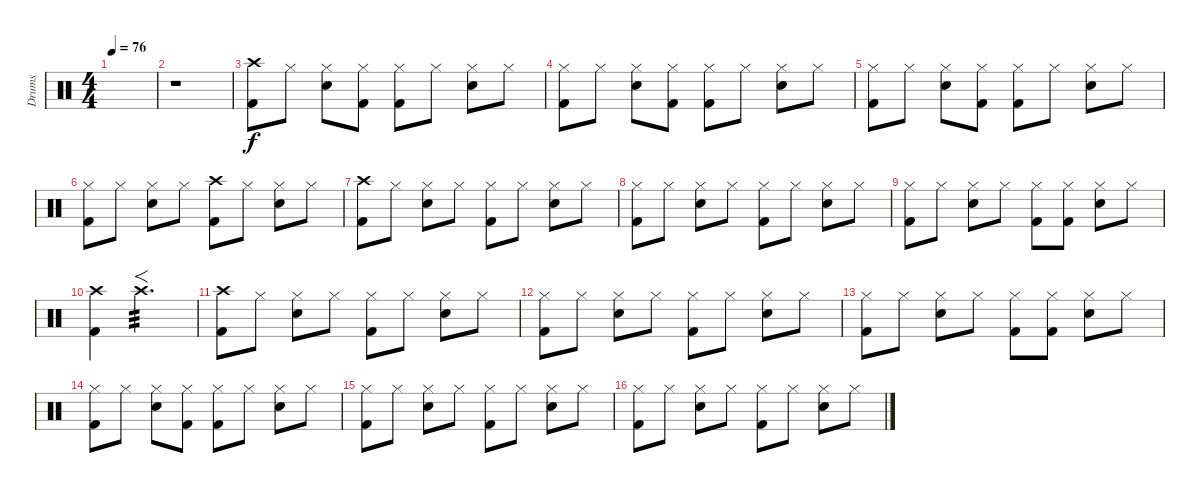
\track ("Drums" "Drums") {instrument percussion}
\staff {score}
\articulation defaults
\ts (4 4)
\tempo 76
\clef neutral
\ks c
|
r.1 |
("Crash high (hit)" "Kick (hit) 2").8 "Hi-Hat (closed)".8 ("Hi-Hat (closed)" "Snare (hit) 2").8 ("Hi-Hat (closed)" "Kick (hit) 2").8 ("Hi-Hat (closed)" "Kick (hit) 2").8 "Hi-Hat (closed)".8 ("Hi-Hat (closed)" "Snare (hit) 2").8 "Hi-Hat (closed)".8 |
("Hi-Hat (closed)" "Kick (hit) 2").8 "Hi-Hat (closed)".8 ("Hi-Hat (closed)" "Snare (hit) 2").8 ("Hi-Hat (closed)" "Kick (hit) 2").8 ("Hi-Hat (closed)" "Kick (hit) 2").8 "Hi-Hat (closed)".8 ("Hi-Hat (closed)" "Snare (hit) 2").8 "Hi-Hat (closed)".8 |
("Hi-Hat (closed)" "Kick (hit) 2").8 "Hi-Hat (closed)".8 ("Hi-Hat (closed)" "Snare (hit) 2").8 ("Hi-Hat (closed)" "Kick (hit) 2").8 ("Hi-Hat (closed)" "Kick (hit) 2").8 "Hi-Hat (closed)".8 ("Hi-Hat (closed)" "Snare (hit) 2").8 "Hi-Hat (closed)".8 |
("Hi-Hat (closed)" "Kick (hit) 2").8 "Hi-Hat (closed)".8 ("Hi-Hat (closed)" "Snare (hit) 2").8 "Hi-Hat (closed)".8 ("Crash high (hit)" "Kick (hit) 2").8 "Hi-Hat (closed)".8 ("Hi-Hat (closed)" "Snare (hit) 2").8 "Hi-Hat (closed)".8 |
("Crash high (hit)" "Kick (hit) 2").8 "Hi-Hat (closed)".8 ("Hi-Hat (closed)" "Snare (hit) 2").8 "Hi-Hat (closed)".8 ("Hi-Hat (closed)" "Kick (hit) 2").8 "Hi-Hat (closed)".8 ("Hi-Hat (closed)" "Snare (hit) 2").8 "Hi-Hat (closed)".8 |
("Hi-Hat (closed)" "Kick (hit) 2").8 "Hi-Hat (closed)".8 ("Hi-Hat (closed)" "Snare (hit) 2").8 "Hi-Hat (closed)".8 ("Hi-Hat (closed)" "Kick (hit) 2").8 "Hi-Hat (closed)".8 ("Hi-Hat (closed)" "Snare (hit) 2").8 "Hi-Hat (closed)".8 |
("Hi-Hat (closed)" "Kick (hit) 2").8 "Hi-Hat (closed)".8 ("Hi-Hat (closed)" "Snare (hit) 2").8 "Hi-Hat (closed)".8 ("Hi-Hat (closed)" "Kick (hit) 2").8 ("Hi-Hat (closed)" "Kick (hit) 2").8 ("Hi-Hat (closed)" "Snare (hit) 2").8 "Hi-Hat (closed)".8 |
("Crash high (hit)" "Kick (hit) 2").4 "Crash high (hit)".2{f d tp 3} |
("Crash high (hit)" "Kick (hit) 2").8 "Hi-Hat (closed)".8 ("Hi-Hat (closed)" "Snare (hit) 2").8 "Hi-Hat (closed)".8 ("Hi-Hat (closed)" "Kick (hit) 2").8 "Hi-Hat (closed)".8 ("Hi-Hat (closed)" "Snare (hit) 2").8 "Hi-Hat (closed)".8 |
("Hi-Hat (closed)" "Kick (hit) 2").8 "Hi-Hat (closed)".8 ("Hi-Hat (closed)" "Snare (hit) 2").8 "Hi-Hat (closed)".8 ("Hi-Hat (closed)" "Kick (hit) 2").8 "Hi-Hat (closed)".8 ("Hi-Hat (closed)" "Snare (hit) 2").8 "Hi-Hat (closed)".8 |
("Hi-Hat (closed)" "Kick (hit) 2").8 "Hi-Hat (closed)".8 ("Hi-Hat (closed)" "Snare (hit) 2").8 "Hi-Hat (closed)".8 ("Hi-Hat (closed)" "Kick (hit) 2").8 ("Hi-Hat (closed)" "Kick (hit) 2").8 ("Hi-Hat (closed)" "Snare (hit) 2").8 "Hi-Hat (closed)".8 |
("Hi-Hat (closed)" "Kick (hit) 2").8 "Hi-Hat (closed)".8 ("Hi-Hat (closed)" "Snare (hit) 2").8 ("Hi-Hat (closed)" "Kick (hit) 2").8 ("Hi-Hat (closed)" "Kick (hit) 2").8 "Hi-Hat (closed)".8 ("Hi-Hat (closed)" "Snare (hit) 2").8 "Hi-Hat (closed)".8 |
("Hi-Hat (closed)" "Kick (hit) 2").8 "Hi-Hat (closed)".8 ("Hi-Hat (closed)" "Snare (hit) 2").8 "Hi-Hat (closed)".8 ("Hi-Hat (closed)" "Kick (hit) 2").8 "Hi-Hat (closed)".8 ("Hi-Hat (closed)" "Snare (hit) 2").8 "Hi-Hat (closed)".8 |
("Hi-Hat (closed)" "Kick (hit) 2").8 "Hi-Hat (closed)".8 ("Hi-Hat (closed)" "Snare (hit) 2").8 "Hi-Hat (closed)".8 ("Hi-Hat (closed)" "Kick (hit) 2").8 "Hi-Hat (closed)".8 ("Hi-Hat (closed)" "Snare (hit) 2").8 "Hi-Hat (closed)".8
